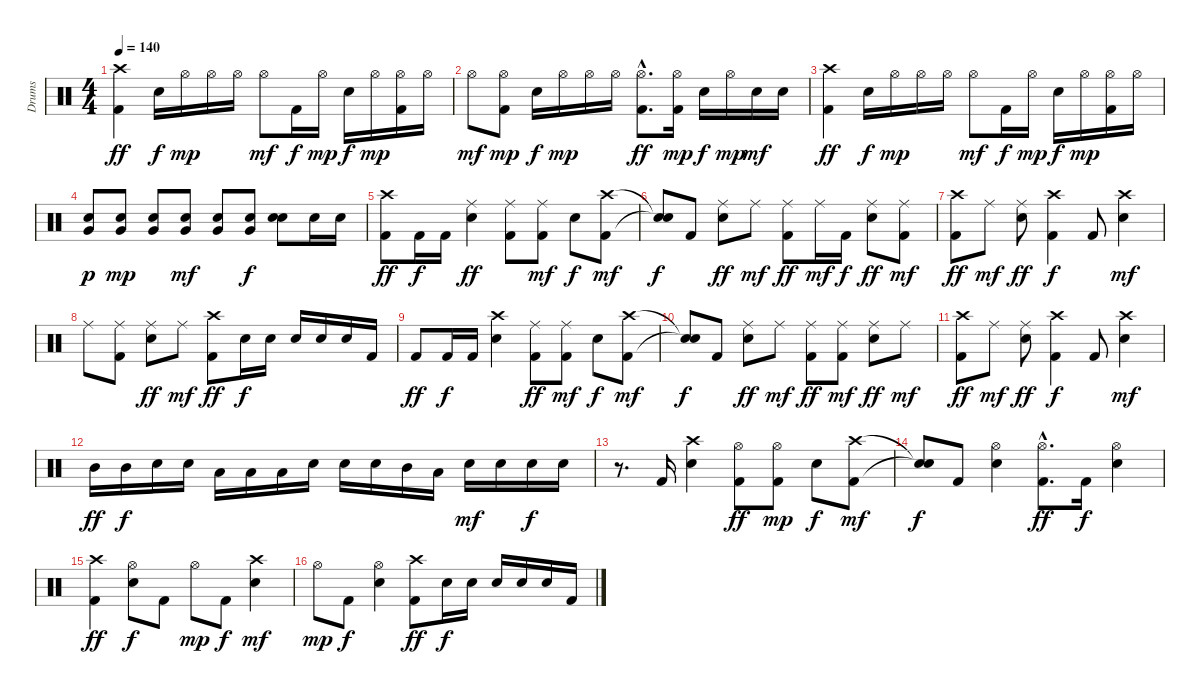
\track ("Drums" "Drums") {instrument percussion}
\staff {score}
\articulation defaults
\ts (4 4)
\tempo 140
\clef neutral
\ks c
("Crash high (hit)" "Kick (hit) 2").4{dy ff} "Electric Snare (hit)".16{dy f} "Hi-Hat (open)".16{dy mp} "Hi-Hat (open)".16 "Hi-Hat (open)".16 "Hi-Hat (open)".8{dy mf} "Kick (hit) 2".16{dy f} "Hi-Hat (open)".16{dy mp} "Electric Snare (hit)".16{dy f} "Hi-Hat (open)".16{dy mp} ("Hi-Hat (open)" "Kick (hit) 2").16 "Hi-Hat (open)".16 |
"Hi-Hat (open)".8{dy mf} ("Hi-Hat (open)" "Kick (hit) 2").8{dy mp} "Electric Snare (hit)".16{dy f} "Hi-Hat (open)".16{dy mp} "Hi-Hat (open)".16 "Hi-Hat (open)".16 ("Hi-Hat (open)"{hac} "Kick (hit) 2"{hac}).8{d dy ff} ("Hi-Hat (open)" "Kick (hit) 2").16{dy mp} "Electric Snare (hit)".16{dy f} "Hi-Hat (open)".16{dy mp} "Electric Snare (hit)".16{dy mf} "Electric Snare (hit)".16 |
("Crash high (hit)" "Kick (hit) 2").4{dy ff} "Electric Snare (hit)".16{dy f} "Hi-Hat (open)".16{dy mp} "Hi-Hat (open)".16 "Hi-Hat (open)".16 "Hi-Hat (open)".8{dy mf} "Kick (hit) 2".16{dy f} "Hi-Hat (open)".16{dy mp} "Electric Snare (hit)".16{dy f} "Hi-Hat (open)".16{dy mp} ("Hi-Hat (open)" "Kick (hit) 2").16 "Hi-Hat (open)".16 |
("Electric Snare (hit)" "Very Low Tom (hit)").8{dy p} ("Electric Snare (hit)" "Very Low Tom (hit)").8{dy mp} ("Electric Snare (hit)" "Very Low Tom (hit)").8 ("Electric Snare (hit)" "Very Low Tom (hit)").8{dy mf} ("Electric Snare (hit)" "Very Low Tom (hit)").8 ("Electric Snare (hit)" "Very Low Tom (hit)").8{dy f} ("Electric Snare (hit)" "Electric Snare (hit)").8 "Electric Snare (hit)".16 "Electric Snare (hit)".16 |
("Crash high (hit)" "Kick (hit) 2").8{dy ff} "Kick (hit) 2".16{dy f} "Kick (hit) 2".16 ("Ride (middle)" "Electric Snare (hit)").4{dy ff} ("Ride (middle)" "Kick (hit) 2").8 ("Ride (middle)" "Kick (hit) 2").8{dy mf} "Electric Snare (hit)".8{dy f} ("Crash high (hit)" "Kick (hit) 2").8{dy mf} |
("Snare (hit)"{t} "Snare (hit)"{t}).8{dy f} "Kick (hit) 2".8 ("Ride (middle)" "Electric Snare (hit)").8{dy ff} "Ride (middle)".8{dy mf} ("Ride (middle)" "Kick (hit) 2").8{dy ff} "Ride (middle)".16{dy mf} "Kick (hit) 2".16{dy f} ("Ride (middle)" "Electric Snare (hit)").8{dy ff} ("Ride (middle)" "Kick (hit) 2").8{dy mf} |
("Crash high (hit)" "Kick (hit) 2").8{dy ff} "Ride (middle)".8{dy mf} ("Ride (middle)" "Electric Snare (hit)").8{dy ff} ("Crash high (hit)" "Kick (hit) 2").4{dy f} "Kick (hit) 2".8 ("Crash high (hit)" "Electric Snare (hit)").4{dy mf} |
"Ride (middle)".8 ("Ride (middle)" "Kick (hit) 2").8 ("Ride (middle)" "Electric Snare (hit)").8{dy ff} "Ride (middle)".8{dy mf} ("Crash high (hit)" "Kick (hit) 2").8{dy ff} "Electric Snare (hit)".16{dy f} "Electric Snare (hit)".16 "Electric Snare (hit)".16 "Electric Snare (hit)".16 "Electric Snare (hit)".16 "Kick (hit) 2".16 |
"Kick (hit) 2".8{dy ff} "Kick (hit) 2".16{dy f} "Kick (hit) 2".16 ("Crash high (hit)" "Electric Snare (hit)").4 ("Ride (middle)" "Kick (hit) 2").8{dy ff} ("Ride (middle)" "Kick (hit) 2").8{dy mf} "Electric Snare (hit)".8{dy f} ("Crash high (hit)" "Kick (hit) 2").8{dy mf} |
("Snare (hit)"{t} "Snare (hit)"{t}).8{dy f} "Kick (hit) 2".8 ("Ride (middle)" "Electric Snare (hit)").8{dy ff} "Ride (middle)".8{dy mf} ("Ride (middle)" "Kick (hit) 2").8{dy ff} ("Ride (middle)" "Kick (hit) 2").8{dy mf} ("Ride (middle)" "Electric Snare (hit)").8{dy ff} "Ride (middle)".8{dy mf} |
("Crash high (hit)" "Kick (hit) 2").8{dy ff} "Ride (middle)".8{dy mf} ("Ride (middle)" "Electric Snare (hit)").8{dy ff} ("Crash high (hit)" "Kick (hit) 2").4{dy f} "Kick (hit) 2".8 ("Crash high (hit)" "Electric Snare (hit)").4{dy mf} |
"Mid Tom (hit)".16{dy ff} "Mid Tom (hit)".16{dy f} "Electric Snare (hit)".16 "Electric Snare (hit)".16 "Low Tom (hit)".16 "Low Tom (hit)".16 "Low Tom (hit)".16 "Electric Snare (hit)".16 "Electric Snare (hit)".16 "Electric Snare (hit)".16 "Mid Tom (hit)".16 "Low Tom (hit)".16 "Electric Snare (hit)".16{dy mf} "Electric Snare (hit)".16 "Electric Snare (hit)".16{dy f} "Electric Snare (hit)".16 |
r.8{d} "Kick (hit) 2".16 ("Crash high (hit)" "Electric Snare (hit)").4 ("Hi-Hat (open)" "Kick (hit) 2").8{dy ff} ("Hi-Hat (open)" "Kick (hit) 2").8{dy mp} "Electric Snare (hit)".8{dy f} ("Crash high (hit)" "Kick (hit) 2").8{dy mf} |
("Snare (hit)"{t} "Snare (hit)"{t}).8{dy f} "Kick (hit) 2".8 ("Hi-Hat (open)" "Electric Snare (hit)").4 ("Hi-Hat (open)"{hac} "Kick (hit) 2"{hac}).8{d dy ff} "Kick (hit) 2".16{dy f} ("Hi-Hat (open)" "Electric Snare (hit)").4 |
("Crash high (hit)" "Kick (hit) 2").4{dy ff} ("Hi-Hat (open)" "Electric Snare (hit)").8{dy f} "Kick (hit) 2".8 "Hi-Hat (open)".8{dy mp} "Kick (hit) 2".8{dy f} ("Crash high (hit)" "Electric Snare (hit)").4{dy mf} |
"Hi-Hat (open)".8{dy mp} "Kick (hit) 2".8{dy f} ("Hi-Hat (open)" "Electric Snare (hit)").4 ("Crash high (hit)" "Kick (hit) 2").8{dy ff} "Electric Snare (hit)".16{dy f} "Electric Snare (hit)".16 "Electric Snare (hit)".16 "Electric Snare (hit)".16 "Electric Snare (hit)".16 "Kick (hit) 2".16
